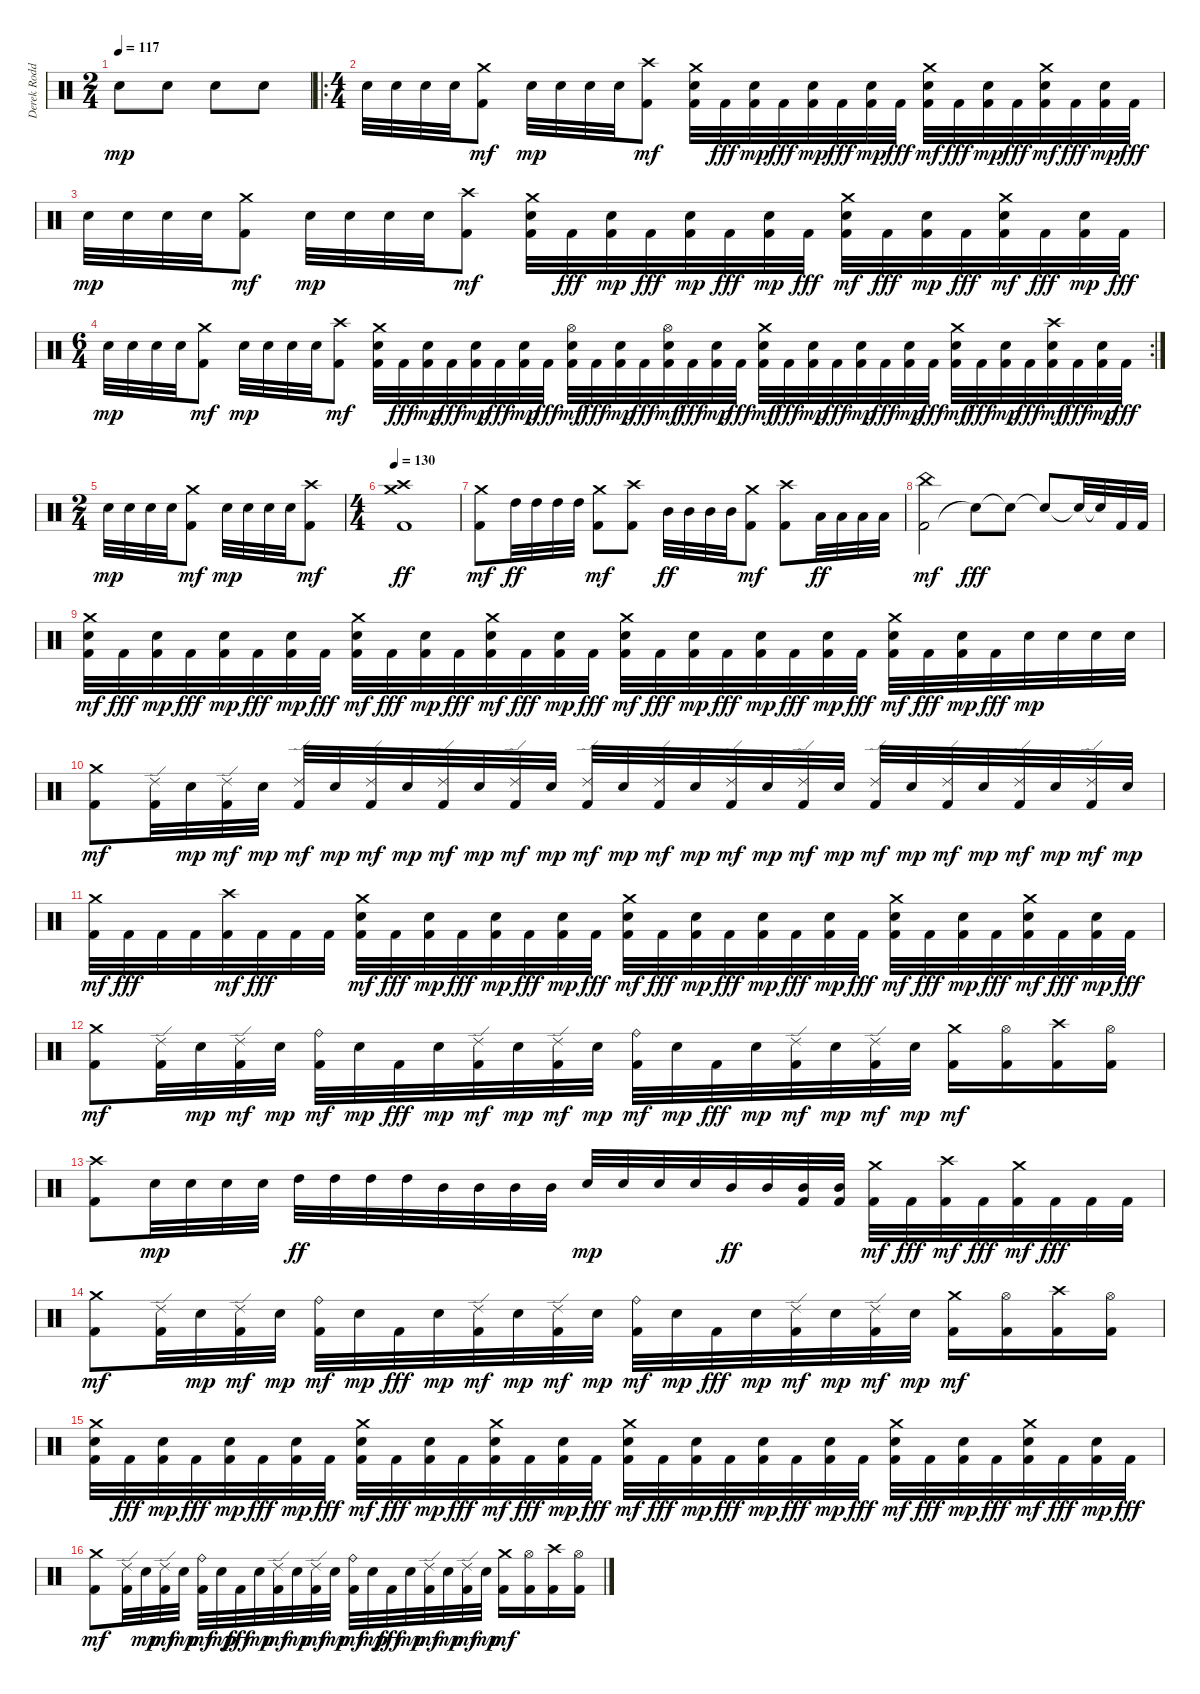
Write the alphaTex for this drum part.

\track ("Derek Roddy" "Derek Rodd") {instrument percussion}
\staff {score}
\articulation defaults
\ts (2 4)
\tempo 117
\clef neutral
\ks c "Electric Snare (hit)".8{dy mp} "Electric Snare (hit)".8 "Electric Snare (hit)".8 "Electric Snare (hit)".8
|
\ro
\ts (4 4)
"Electric Snare (hit)".32 "Electric Snare (hit)".32 "Electric Snare (hit)".32 "Electric Snare (hit)".32 ("Kick (hit) 2" "Crash medium (hit)").8{dy mf} "Electric Snare (hit)".32{dy mp} "Electric Snare (hit)".32 "Electric Snare (hit)".32 "Electric Snare (hit)".32 ("Kick (hit) 2" "Crash high (hit)").8{dy mf} ("Kick (hit) 2" "Electric Snare (hit)" "Crash medium (hit)").32 "Kick (hit) 2".32{dy fff} ("Kick (hit) 2" "Electric Snare (hit)").32{dy mp} "Kick (hit) 2".32{dy fff} ("Kick (hit) 2" "Electric Snare (hit)").32{dy mp} "Kick (hit) 2".32{dy fff} ("Kick (hit) 2" "Electric Snare (hit)").32{dy mp} "Kick (hit) 2".32{dy fff} ("Kick (hit) 2" "Electric Snare (hit)" "Crash medium (hit)").32{dy mf} "Kick (hit) 2".32{dy fff} ("Kick (hit) 2" "Electric Snare (hit)").32{dy mp} "Kick (hit) 2".32{dy fff} ("Kick (hit) 2" "Electric Snare (hit)" "Crash medium (hit)").32{dy mf} "Kick (hit) 2".32{dy fff} ("Kick (hit) 2" "Electric Snare (hit)").32{dy mp} "Kick (hit) 2".32{dy fff} |
"Electric Snare (hit)".32{dy mp} "Electric Snare (hit)".32 "Electric Snare (hit)".32 "Electric Snare (hit)".32 ("Kick (hit) 2" "Crash medium (hit)").8{dy mf} "Electric Snare (hit)".32{dy mp} "Electric Snare (hit)".32 "Electric Snare (hit)".32 "Electric Snare (hit)".32 ("Kick (hit) 2" "Crash high (hit)").8{dy mf} ("Kick (hit) 2" "Electric Snare (hit)" "Crash medium (hit)").32 "Kick (hit) 2".32{dy fff} ("Kick (hit) 2" "Electric Snare (hit)").32{dy mp} "Kick (hit) 2".32{dy fff} ("Kick (hit) 2" "Electric Snare (hit)").32{dy mp} "Kick (hit) 2".32{dy fff} ("Kick (hit) 2" "Electric Snare (hit)").32{dy mp} "Kick (hit) 2".32{dy fff} ("Kick (hit) 2" "Electric Snare (hit)" "Crash medium (hit)").32{dy mf} "Kick (hit) 2".32{dy fff} ("Kick (hit) 2" "Electric Snare (hit)").32{dy mp} "Kick (hit) 2".32{dy fff} ("Kick (hit) 2" "Electric Snare (hit)" "Crash medium (hit)").32{dy mf} "Kick (hit) 2".32{dy fff} ("Kick (hit) 2" "Electric Snare (hit)").32{dy mp} "Kick (hit) 2".32{dy fff} |
\rc 2
\ts (6 4)
"Electric Snare (hit)".32{dy mp} "Electric Snare (hit)".32 "Electric Snare (hit)".32 "Electric Snare (hit)".32 ("Kick (hit) 2" "Crash medium (hit)").8{dy mf} "Electric Snare (hit)".32{dy mp} "Electric Snare (hit)".32 "Electric Snare (hit)".32 "Electric Snare (hit)".32 ("Kick (hit) 2" "Crash high (hit)").8{dy mf} ("Kick (hit) 2" "Electric Snare (hit)" "Crash medium (hit)").32 "Kick (hit) 2".32{dy fff} ("Kick (hit) 2" "Electric Snare (hit)").32{dy mp} "Kick (hit) 2".32{dy fff} ("Kick (hit) 2" "Electric Snare (hit)").32{dy mp} "Kick (hit) 2".32{dy fff} ("Kick (hit) 2" "Electric Snare (hit)").32{dy mp} "Kick (hit) 2".32{dy fff} ("Kick (hit) 2" "Electric Snare (hit)" "Hi-Hat (open)").32{dy mf} "Kick (hit) 2".32{dy fff} ("Kick (hit) 2" "Electric Snare (hit)").32{dy mp} "Kick (hit) 2".32{dy fff} ("Kick (hit) 2" "Electric Snare (hit)" "Hi-Hat (open)").32{dy mf} "Kick (hit) 2".32{dy fff} ("Kick (hit) 2" "Electric Snare (hit)").32{dy mp} "Kick (hit) 2".32{dy fff} ("Kick (hit) 2" "Electric Snare (hit)" "Crash medium (hit)").32{dy mf} "Kick (hit) 2".32{dy fff} ("Kick (hit) 2" "Electric Snare (hit)").32{dy mp} "Kick (hit) 2".32{dy fff} ("Kick (hit) 2" "Electric Snare (hit)").32{dy mp} "Kick (hit) 2".32{dy fff} ("Kick (hit) 2" "Electric Snare (hit)").32{dy mp} "Kick (hit) 2".32{dy fff} ("Kick (hit) 2" "Electric Snare (hit)" "Crash medium (hit)").32{dy mf} "Kick (hit) 2".32{dy fff} ("Kick (hit) 2" "Electric Snare (hit)").32{dy mp} "Kick (hit) 2".32{dy fff} ("Kick (hit) 2" "Electric Snare (hit)" "Crash high (hit)").32{dy mf} "Kick (hit) 2".32{dy fff} ("Kick (hit) 2" "Electric Snare (hit)").32{dy mp} "Kick (hit) 2".32{dy fff} |
\ts (2 4)
"Electric Snare (hit)".32{dy mp} "Electric Snare (hit)".32 "Electric Snare (hit)".32 "Electric Snare (hit)".32 ("Kick (hit) 2" "Crash medium (hit)").8{dy mf} "Electric Snare (hit)".32{dy mp} "Electric Snare (hit)".32 "Electric Snare (hit)".32 "Electric Snare (hit)".32 ("Kick (hit) 2" "Crash high (hit)").8{dy mf} |
\ts (4 4)
\tempo 130
("Kick (hit) 2" "Crash high (hit)" "Crash medium (hit)").1{dy ff} |
("Kick (hit) 2" "Crash medium (hit)").8{dy mf} "High Tom (hit)".32{dy ff} "High Tom (hit)".32 "High Tom (hit)".32 "High Tom (hit)".32 ("Kick (hit) 2" "Crash medium (hit)").8{dy mf} ("Kick (hit) 2" "Crash high (hit)").8 "Mid Tom (hit)".32{dy ff} "Mid Tom (hit)".32 "Mid Tom (hit)".32 "Mid Tom (hit)".32 ("Kick (hit) 2" "Crash medium (hit)").8{dy mf} ("Kick (hit) 2" "Crash high (hit)").8 "Low Tom (hit)".32{dy ff} "Low Tom (hit)".32 "Low Tom (hit)".32 "Low Tom (hit)".32 |
("Kick (hit) 2" "China (hit)").2{dy mf} "Snare (hit)"{t}.8{dy fff} "Snare (hit)"{t}.8 "Snare (hit)"{t}.8 "Snare (hit)"{t}.32 "Snare (hit)"{t}.32 "Kick (hit) 2".32 "Kick (hit) 2".32 |
("Kick (hit) 2" "Electric Snare (hit)" "Crash medium (hit)").32{dy mf} "Kick (hit) 2".32{dy fff} ("Kick (hit) 2" "Electric Snare (hit)").32{dy mp} "Kick (hit) 2".32{dy fff} ("Kick (hit) 2" "Electric Snare (hit)").32{dy mp} "Kick (hit) 2".32{dy fff} ("Kick (hit) 2" "Electric Snare (hit)").32{dy mp} "Kick (hit) 2".32{dy fff} ("Kick (hit) 2" "Electric Snare (hit)" "Crash medium (hit)").32{dy mf} "Kick (hit) 2".32{dy fff} ("Kick (hit) 2" "Electric Snare (hit)").32{dy mp} "Kick (hit) 2".32{dy fff} ("Kick (hit) 2" "Electric Snare (hit)" "Crash medium (hit)").32{dy mf} "Kick (hit) 2".32{dy fff} ("Kick (hit) 2" "Electric Snare (hit)").32{dy mp} "Kick (hit) 2".32{dy fff} ("Kick (hit) 2" "Electric Snare (hit)" "Crash medium (hit)").32{dy mf} "Kick (hit) 2".32{dy fff} ("Kick (hit) 2" "Electric Snare (hit)").32{dy mp} "Kick (hit) 2".32{dy fff} ("Kick (hit) 2" "Electric Snare (hit)").32{dy mp} "Kick (hit) 2".32{dy fff} ("Kick (hit) 2" "Electric Snare (hit)").32{dy mp} "Kick (hit) 2".32{dy fff} ("Kick (hit) 2" "Electric Snare (hit)" "Crash medium (hit)").32{dy mf} "Kick (hit) 2".32{dy fff} ("Kick (hit) 2" "Electric Snare (hit)").32{dy mp} "Kick (hit) 2".32{dy fff} "Electric Snare (hit)".32{dy mp} "Electric Snare (hit)".32 "Electric Snare (hit)".32 "Electric Snare (hit)".32 |
("Kick (hit) 2" "Crash medium (hit)").8{dy mf} ("Kick (hit) 2" "Ride (edge) 2").32 "Electric Snare (hit)".32{dy mp} ("Kick (hit) 2" "Ride (edge) 2").32{dy mf} "Electric Snare (hit)".32{dy mp} ("Kick (hit) 2" "Ride (edge) 2").32{dy mf} "Electric Snare (hit)".32{dy mp} ("Kick (hit) 2" "Ride (edge) 2").32{dy mf} "Electric Snare (hit)".32{dy mp} ("Kick (hit) 2" "Ride (edge) 2").32{dy mf} "Electric Snare (hit)".32{dy mp} ("Kick (hit) 2" "Ride (edge) 2").32{dy mf} "Electric Snare (hit)".32{dy mp} ("Kick (hit) 2" "Ride (edge) 2").32{dy mf} "Electric Snare (hit)".32{dy mp} ("Kick (hit) 2" "Ride (edge) 2").32{dy mf} "Electric Snare (hit)".32{dy mp} ("Kick (hit) 2" "Ride (edge) 2").32{dy mf} "Electric Snare (hit)".32{dy mp} ("Kick (hit) 2" "Ride (edge) 2").32{dy mf} "Electric Snare (hit)".32{dy mp} ("Kick (hit) 2" "Ride (edge) 2").32{dy mf} "Electric Snare (hit)".32{dy mp} ("Kick (hit) 2" "Ride (edge) 2").32{dy mf} "Electric Snare (hit)".32{dy mp} ("Kick (hit) 2" "Ride (edge) 2").32{dy mf} "Electric Snare (hit)".32{dy mp} ("Kick (hit) 2" "Ride (edge) 2").32{dy mf} "Electric Snare (hit)".32{dy mp} |
("Kick (hit) 2" "Crash medium (hit)").32{dy mf} "Kick (hit) 2".32{dy fff} "Kick (hit) 2".32 "Kick (hit) 2".32 ("Kick (hit) 2" "Crash high (hit)").32{dy mf} "Kick (hit) 2".32{dy fff} "Kick (hit) 2".32 "Kick (hit) 2".32 ("Kick (hit) 2" "Electric Snare (hit)" "Crash medium (hit)").32{dy mf} "Kick (hit) 2".32{dy fff} ("Kick (hit) 2" "Electric Snare (hit)").32{dy mp} "Kick (hit) 2".32{dy fff} ("Kick (hit) 2" "Electric Snare (hit)").32{dy mp} "Kick (hit) 2".32{dy fff} ("Kick (hit) 2" "Electric Snare (hit)").32{dy mp} "Kick (hit) 2".32{dy fff} ("Kick (hit) 2" "Electric Snare (hit)" "Crash medium (hit)").32{dy mf} "Kick (hit) 2".32{dy fff} ("Kick (hit) 2" "Electric Snare (hit)").32{dy mp} "Kick (hit) 2".32{dy fff} ("Kick (hit) 2" "Electric Snare (hit)").32{dy mp} "Kick (hit) 2".32{dy fff} ("Kick (hit) 2" "Electric Snare (hit)").32{dy mp} "Kick (hit) 2".32{dy fff} ("Kick (hit) 2" "Electric Snare (hit)" "Crash medium (hit)").32{dy mf} "Kick (hit) 2".32{dy fff} ("Kick (hit) 2" "Electric Snare (hit)").32{dy mp} "Kick (hit) 2".32{dy fff} ("Kick (hit) 2" "Electric Snare (hit)" "Crash medium (hit)").32{dy mf} "Kick (hit) 2".32{dy fff} ("Kick (hit) 2" "Electric Snare (hit)").32{dy mp} "Kick (hit) 2".32{dy fff} |
("Kick (hit) 2" "Crash medium (hit)").8{dy mf} ("Kick (hit) 2" "Ride (edge) 2").32 "Electric Snare (hit)".32{dy mp} ("Kick (hit) 2" "Ride (edge) 2").32{dy mf} "Electric Snare (hit)".32{dy mp} ("Kick (hit) 2" "Ride (bell)").32{dy mf} "Electric Snare (hit)".32{dy mp} "Kick (hit) 2".32{dy fff} "Electric Snare (hit)".32{dy mp} ("Kick (hit) 2" "Ride (edge) 2").32{dy mf} "Electric Snare (hit)".32{dy mp} ("Kick (hit) 2" "Ride (edge) 2").32{dy mf} "Electric Snare (hit)".32{dy mp} ("Kick (hit) 2" "Ride (bell)").32{dy mf} "Electric Snare (hit)".32{dy mp} "Kick (hit) 2".32{dy fff} "Electric Snare (hit)".32{dy mp} ("Kick (hit) 2" "Ride (edge) 2").32{dy mf} "Electric Snare (hit)".32{dy mp} ("Kick (hit) 2" "Ride (edge) 2").32{dy mf} "Electric Snare (hit)".32{dy mp} ("Kick (hit) 2" "Crash medium (hit)").16{dy mf} ("Kick (hit) 2" "Hi-Hat (open)").16 ("Kick (hit) 2" "Crash high (hit)").16 ("Kick (hit) 2" "Hi-Hat (open)").16 |
("Kick (hit) 2" "Crash high (hit)").8 "Electric Snare (hit)".32{dy mp} "Electric Snare (hit)".32 "Electric Snare (hit)".32 "Electric Snare (hit)".32 "High Tom (hit)".32{dy ff} "High Tom (hit)".32 "High Tom (hit)".32 "High Tom (hit)".32 "Mid Tom (hit)".32 "Mid Tom (hit)".32 "Mid Tom (hit)".32 "Mid Tom (hit)".32 "Electric Snare (hit)".32{dy mp} "Electric Snare (hit)".32 "Electric Snare (hit)".32 "Electric Snare (hit)".32 "Mid Tom (hit)".32{dy ff} "Mid Tom (hit)".32 ("Kick (hit) 2" "Mid Tom (hit)").32 ("Kick (hit) 2" "Mid Tom (hit)").32 ("Kick (hit) 2" "Crash medium (hit)").32{dy mf} "Kick (hit) 2".32{dy fff} ("Kick (hit) 2" "Crash high (hit)").32{dy mf} "Kick (hit) 2".32{dy fff} ("Kick (hit) 2" "Crash medium (hit)").32{dy mf} "Kick (hit) 2".32{dy fff} "Kick (hit) 2".32 "Kick (hit) 2".32 |
("Kick (hit) 2" "Crash medium (hit)").8{dy mf} ("Kick (hit) 2" "Ride (edge) 2").32 "Electric Snare (hit)".32{dy mp} ("Kick (hit) 2" "Ride (edge) 2").32{dy mf} "Electric Snare (hit)".32{dy mp} ("Kick (hit) 2" "Ride (bell)").32{dy mf} "Electric Snare (hit)".32{dy mp} "Kick (hit) 2".32{dy fff} "Electric Snare (hit)".32{dy mp} ("Kick (hit) 2" "Ride (edge) 2").32{dy mf} "Electric Snare (hit)".32{dy mp} ("Kick (hit) 2" "Ride (edge) 2").32{dy mf} "Electric Snare (hit)".32{dy mp} ("Kick (hit) 2" "Ride (bell)").32{dy mf} "Electric Snare (hit)".32{dy mp} "Kick (hit) 2".32{dy fff} "Electric Snare (hit)".32{dy mp} ("Kick (hit) 2" "Ride (edge) 2").32{dy mf} "Electric Snare (hit)".32{dy mp} ("Kick (hit) 2" "Ride (edge) 2").32{dy mf} "Electric Snare (hit)".32{dy mp} ("Kick (hit) 2" "Crash medium (hit)").16{dy mf} ("Kick (hit) 2" "Hi-Hat (open)").16 ("Kick (hit) 2" "Crash high (hit)").16 ("Kick (hit) 2" "Hi-Hat (open)").16 |
("Kick (hit) 2" "Electric Snare (hit)" "Crash medium (hit)").32 "Kick (hit) 2".32{dy fff} ("Kick (hit) 2" "Electric Snare (hit)").32{dy mp} "Kick (hit) 2".32{dy fff} ("Kick (hit) 2" "Electric Snare (hit)").32{dy mp} "Kick (hit) 2".32{dy fff} ("Kick (hit) 2" "Electric Snare (hit)").32{dy mp} "Kick (hit) 2".32{dy fff} ("Kick (hit) 2" "Electric Snare (hit)" "Crash medium (hit)").32{dy mf} "Kick (hit) 2".32{dy fff} ("Kick (hit) 2" "Electric Snare (hit)").32{dy mp} "Kick (hit) 2".32{dy fff} ("Kick (hit) 2" "Electric Snare (hit)" "Crash medium (hit)").32{dy mf} "Kick (hit) 2".32{dy fff} ("Kick (hit) 2" "Electric Snare (hit)").32{dy mp} "Kick (hit) 2".32{dy fff} ("Kick (hit) 2" "Electric Snare (hit)" "Crash medium (hit)").32{dy mf} "Kick (hit) 2".32{dy fff} ("Kick (hit) 2" "Electric Snare (hit)").32{dy mp} "Kick (hit) 2".32{dy fff} ("Kick (hit) 2" "Electric Snare (hit)").32{dy mp} "Kick (hit) 2".32{dy fff} ("Kick (hit) 2" "Electric Snare (hit)").32{dy mp} "Kick (hit) 2".32{dy fff} ("Kick (hit) 2" "Electric Snare (hit)" "Crash medium (hit)").32{dy mf} "Kick (hit) 2".32{dy fff} ("Kick (hit) 2" "Electric Snare (hit)").32{dy mp} "Kick (hit) 2".32{dy fff} ("Kick (hit) 2" "Electric Snare (hit)" "Crash medium (hit)").32{dy mf} "Kick (hit) 2".32{dy fff} ("Kick (hit) 2" "Electric Snare (hit)").32{dy mp} "Kick (hit) 2".32{dy fff} |
("Kick (hit) 2" "Crash medium (hit)").8{dy mf} ("Kick (hit) 2" "Ride (edge) 2").32 "Electric Snare (hit)".32{dy mp} ("Kick (hit) 2" "Ride (edge) 2").32{dy mf} "Electric Snare (hit)".32{dy mp} ("Kick (hit) 2" "Ride (bell)").32{dy mf} "Electric Snare (hit)".32{dy mp} "Kick (hit) 2".32{dy fff} "Electric Snare (hit)".32{dy mp} ("Kick (hit) 2" "Ride (edge) 2").32{dy mf} "Electric Snare (hit)".32{dy mp} ("Kick (hit) 2" "Ride (edge) 2").32{dy mf} "Electric Snare (hit)".32{dy mp} ("Kick (hit) 2" "Ride (bell)").32{dy mf} "Electric Snare (hit)".32{dy mp} "Kick (hit) 2".32{dy fff} "Electric Snare (hit)".32{dy mp} ("Kick (hit) 2" "Ride (edge) 2").32{dy mf} "Electric Snare (hit)".32{dy mp} ("Kick (hit) 2" "Ride (edge) 2").32{dy mf} "Electric Snare (hit)".32{dy mp} ("Kick (hit) 2" "Crash medium (hit)").16{dy mf} ("Kick (hit) 2" "Hi-Hat (open)").16 ("Kick (hit) 2" "Crash high (hit)").16 ("Kick (hit) 2" "Hi-Hat (open)").16
